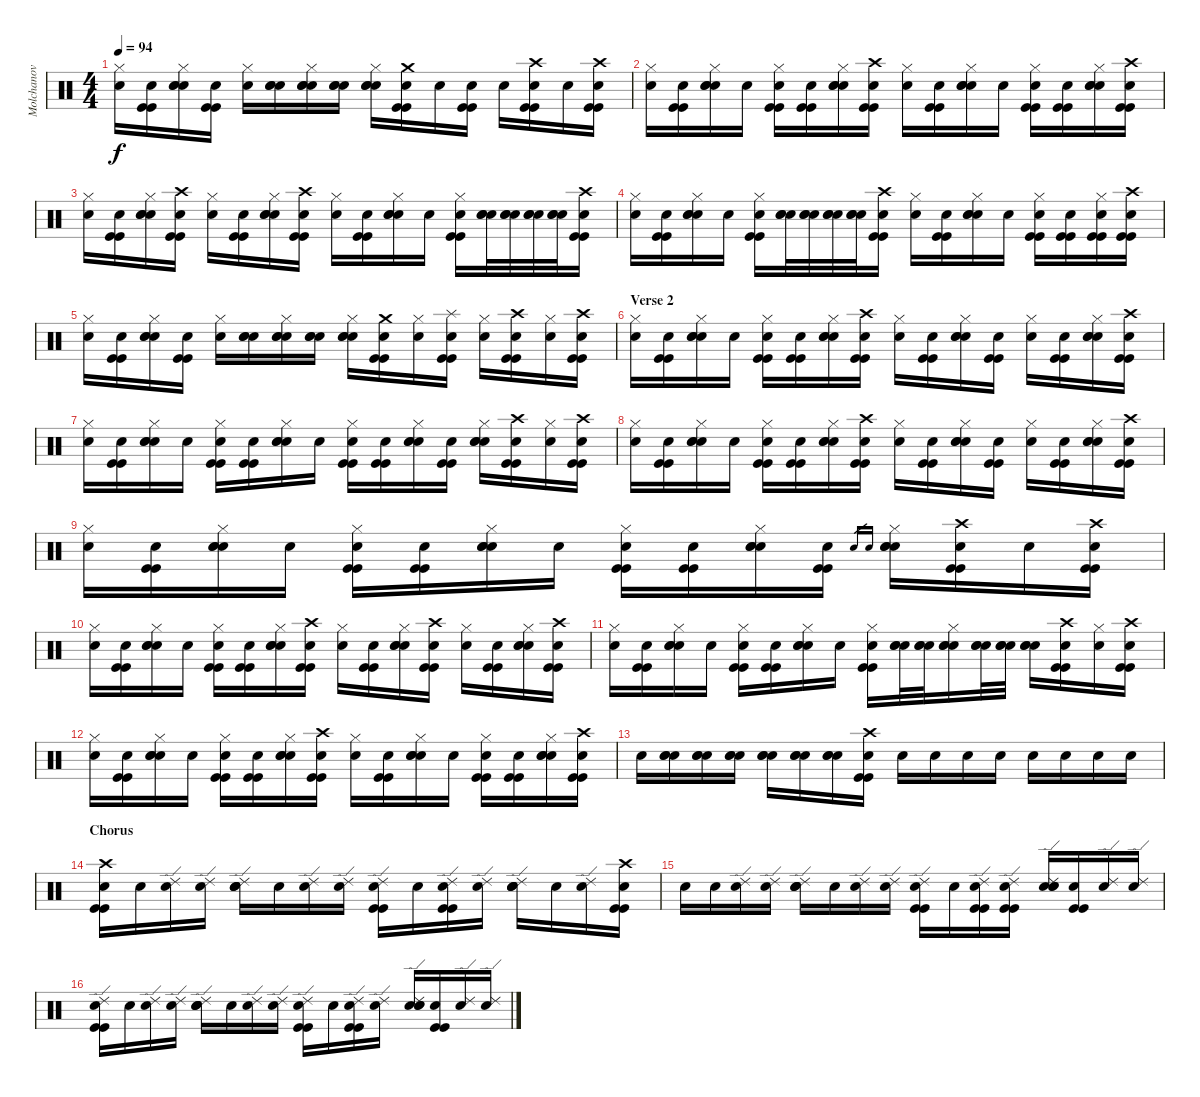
\track ("Molchanov" "Molchanov") {instrument percussion}
\staff {score}
\articulation defaults
\ts (4 4)
\tempo 94
\clef neutral
\ks c
("Hi-Hat (closed)" "Snare (hit)"{x}).16{dy f} ("Kick (hit)" "Kick (hit)" "Snare (hit)"{x}).16 ("Hi-Hat (closed)" "Electric Snare (hit)" "Electric Snare (hit)" "Snare (hit)"{x}).16 ("Kick (hit)" "Kick (hit)" "Snare (hit)"{x}).16 ("Hi-Hat (closed)" "Snare (hit)"{x}).16 ("Electric Snare (hit)" "Electric Snare (hit)" "Snare (hit)"{x}).16 ("Hi-Hat (closed)" "Electric Snare (hit)" "Electric Snare (hit)" "Snare (hit)"{x}).16 ("Electric Snare (hit)" "Electric Snare (hit)" "Snare (hit)"{x}).16 ("Hi-Hat (closed)" "Electric Snare (hit)" "Electric Snare (hit)" "Snare (hit)"{x}).16 ("Crash medium (hit)" "Kick (hit)" "Kick (hit)" "Snare (hit)"{x}).16 "Snare (hit)"{x}.16 ("Kick (hit)" "Kick (hit)" "Snare (hit)"{x}).16 "Snare (hit)"{x}.16 ("Crash high (hit)" "Kick (hit)" "Kick (hit)" "Snare (hit)"{x}).16 "Snare (hit)"{x}.16 ("Crash high (hit)" "Kick (hit)" "Kick (hit)" "Snare (hit)"{x}).16 |
("Hi-Hat (closed)" "Snare (hit)"{x}).16 ("Kick (hit)" "Kick (hit)" "Snare (hit)"{x}).16 ("Hi-Hat (closed)" "Electric Snare (hit)" "Electric Snare (hit)" "Snare (hit)"{x}).16 "Snare (hit)"{x}.16 ("Hi-Hat (closed)" "Kick (hit)" "Kick (hit)" "Snare (hit)"{x}).16 ("Kick (hit)" "Kick (hit)" "Snare (hit)"{x}).16 ("Hi-Hat (closed)" "Electric Snare (hit)" "Electric Snare (hit)" "Snare (hit)"{x}).16 ("Crash high (hit)" "Kick (hit)" "Kick (hit)" "Snare (hit)"{x}).16 ("Hi-Hat (closed)" "Snare (hit)"{x}).16 ("Kick (hit)" "Kick (hit)" "Snare (hit)"{x}).16 ("Hi-Hat (closed)" "Electric Snare (hit)" "Electric Snare (hit)" "Snare (hit)"{x}).16 "Snare (hit)"{x}.16 ("Hi-Hat (closed)" "Kick (hit)" "Kick (hit)" "Snare (hit)"{x}).16 ("Kick (hit)" "Kick (hit)" "Snare (hit)"{x}).16 ("Hi-Hat (closed)" "Electric Snare (hit)" "Electric Snare (hit)" "Snare (hit)"{x}).16 ("Crash high (hit)" "Kick (hit)" "Kick (hit)" "Snare (hit)"{x}).16 |
("Hi-Hat (closed)" "Snare (hit)"{x}).16 ("Kick (hit)" "Kick (hit)" "Snare (hit)"{x}).16 ("Hi-Hat (closed)" "Electric Snare (hit)" "Electric Snare (hit)" "Snare (hit)"{x}).16 ("Crash high (hit)" "Kick (hit)" "Kick (hit)" "Snare (hit)"{x}).16 ("Hi-Hat (closed)" "Snare (hit)"{x}).16 ("Kick (hit)" "Kick (hit)" "Snare (hit)"{x}).16 ("Hi-Hat (closed)" "Electric Snare (hit)" "Electric Snare (hit)" "Snare (hit)"{x}).16 ("Crash high (hit)" "Kick (hit)" "Kick (hit)" "Snare (hit)"{x}).16 ("Hi-Hat (closed)" "Snare (hit)"{x}).16 ("Kick (hit)" "Kick (hit)" "Snare (hit)"{x}).16 ("Hi-Hat (closed)" "Electric Snare (hit)" "Electric Snare (hit)" "Snare (hit)"{x}).16 "Snare (hit)"{x}.16 ("Hi-Hat (closed)" "Kick (hit)" "Kick (hit)" "Snare (hit)"{x}).16 ("Electric Snare (hit)" "Electric Snare (hit)" "Snare (hit)"{x}).32 ("Electric Snare (hit)" "Electric Snare (hit)" "Snare (hit)"{x}).32 ("Electric Snare (hit)" "Electric Snare (hit)" "Snare (hit)"{x}).32 ("Electric Snare (hit)" "Electric Snare (hit)" "Snare (hit)"{x}).32 ("Crash high (hit)" "Kick (hit)" "Kick (hit)" "Snare (hit)"{x}).16 |
("Hi-Hat (closed)" "Snare (hit)"{x}).16 ("Kick (hit)" "Kick (hit)" "Snare (hit)"{x}).16 ("Hi-Hat (closed)" "Electric Snare (hit)" "Electric Snare (hit)" "Snare (hit)"{x}).16 "Snare (hit)"{x}.16 ("Hi-Hat (closed)" "Kick (hit)" "Kick (hit)" "Snare (hit)"{x}).16 ("Electric Snare (hit)" "Electric Snare (hit)" "Snare (hit)"{x}).32 ("Electric Snare (hit)" "Electric Snare (hit)" "Snare (hit)"{x}).32 ("Electric Snare (hit)" "Electric Snare (hit)" "Snare (hit)"{x}).32 ("Electric Snare (hit)" "Electric Snare (hit)" "Snare (hit)"{x}).32 ("Crash high (hit)" "Kick (hit)" "Kick (hit)" "Snare (hit)"{x}).16 ("Hi-Hat (closed)" "Snare (hit)"{x}).16 ("Kick (hit)" "Kick (hit)" "Snare (hit)"{x}).16 ("Hi-Hat (closed)" "Electric Snare (hit)" "Electric Snare (hit)" "Snare (hit)"{x}).16 "Snare (hit)"{x}.16 ("Hi-Hat (closed)" "Kick (hit)" "Kick (hit)" "Snare (hit)"{x}).16 ("Kick (hit)" "Kick (hit)" "Snare (hit)"{x}).16 ("Hi-Hat (closed)" "Kick (hit)" "Kick (hit)" "Snare (hit)"{x}).16 ("Crash high (hit)" "Kick (hit)" "Kick (hit)" "Snare (hit)"{x}).16 |
("Hi-Hat (closed)" "Snare (hit)"{x}).16 ("Kick (hit)" "Kick (hit)" "Snare (hit)"{x}).16 ("Hi-Hat (closed)" "Electric Snare (hit)" "Electric Snare (hit)" "Snare (hit)"{x}).16 ("Kick (hit)" "Kick (hit)" "Snare (hit)"{x}).16 ("Hi-Hat (closed)" "Snare (hit)"{x}).16 ("Electric Snare (hit)" "Electric Snare (hit)" "Snare (hit)"{x}).16 ("Hi-Hat (closed)" "Electric Snare (hit)" "Electric Snare (hit)" "Snare (hit)"{x}).16 ("Electric Snare (hit)" "Electric Snare (hit)" "Snare (hit)"{x}).16 ("Hi-Hat (closed)" "Electric Snare (hit)" "Electric Snare (hit)" "Snare (hit)"{x}).16 ("Crash medium (hit)" "Kick (hit)" "Kick (hit)" "Snare (hit)"{x}).16 ("Hi-Hat (closed)" "Snare (hit)"{x}).16 ("Splash (hit)" "Kick (hit)" "Kick (hit)" "Snare (hit)"{x}).16 ("Hi-Hat (closed)" "Snare (hit)"{x}).16 ("Crash high (hit)" "Kick (hit)" "Kick (hit)" "Snare (hit)"{x}).16 ("Hi-Hat (closed)" "Snare (hit)"{x}).16 ("Crash high (hit)" "Kick (hit)" "Kick (hit)" "Snare (hit)"{x}).16 |
\section ("" "Verse 2")
("Hi-Hat (closed)" "Snare (hit)"{x}).16 ("Kick (hit)" "Kick (hit)" "Snare (hit)"{x}).16 ("Hi-Hat (closed)" "Electric Snare (hit)" "Electric Snare (hit)" "Snare (hit)"{x}).16 "Snare (hit)"{x}.16 ("Hi-Hat (closed)" "Kick (hit)" "Kick (hit)" "Snare (hit)"{x}).16 ("Kick (hit)" "Kick (hit)" "Snare (hit)"{x}).16 ("Hi-Hat (closed)" "Electric Snare (hit)" "Electric Snare (hit)" "Snare (hit)"{x}).16 ("Crash high (hit)" "Kick (hit)" "Kick (hit)" "Snare (hit)"{x}).16 ("Hi-Hat (closed)" "Snare (hit)"{x}).16 ("Kick (hit)" "Kick (hit)" "Snare (hit)"{x}).16 ("Hi-Hat (closed)" "Electric Snare (hit)" "Electric Snare (hit)" "Snare (hit)"{x}).16 ("Kick (hit)" "Kick (hit)" "Snare (hit)"{x}).16 ("Hi-Hat (closed)" "Snare (hit)"{x}).16 ("Kick (hit)" "Kick (hit)" "Snare (hit)"{x}).16 ("Hi-Hat (closed)" "Electric Snare (hit)" "Electric Snare (hit)" "Snare (hit)"{x}).16 ("Crash high (hit)" "Kick (hit)" "Kick (hit)" "Snare (hit)"{x}).16 |
("Hi-Hat (closed)" "Snare (hit)"{x}).16 ("Kick (hit)" "Kick (hit)" "Snare (hit)"{x}).16 ("Hi-Hat (closed)" "Electric Snare (hit)" "Electric Snare (hit)" "Snare (hit)"{x}).16 "Snare (hit)"{x}.16 ("Hi-Hat (closed)" "Kick (hit)" "Kick (hit)" "Snare (hit)"{x}).16 ("Kick (hit)" "Kick (hit)" "Snare (hit)"{x}).16 ("Hi-Hat (closed)" "Electric Snare (hit)" "Electric Snare (hit)" "Snare (hit)"{x}).16 "Snare (hit)"{x}.16 ("Hi-Hat (closed)" "Kick (hit)" "Kick (hit)" "Snare (hit)"{x}).16 ("Kick (hit)" "Kick (hit)" "Snare (hit)"{x}).16 ("Hi-Hat (closed)" "Electric Snare (hit)" "Electric Snare (hit)" "Snare (hit)"{x}).16 ("Kick (hit)" "Kick (hit)" "Snare (hit)"{x}).16 ("Hi-Hat (closed)" "Electric Snare (hit)" "Electric Snare (hit)" "Snare (hit)"{x}).16 ("Crash high (hit)" "Kick (hit)" "Kick (hit)" "Snare (hit)"{x}).16 ("Hi-Hat (closed)" "Snare (hit)"{x}).16 ("Crash high (hit)" "Kick (hit)" "Kick (hit)" "Snare (hit)"{x}).16 |
("Hi-Hat (closed)" "Snare (hit)"{x}).16 ("Kick (hit)" "Kick (hit)" "Snare (hit)"{x}).16 ("Hi-Hat (closed)" "Electric Snare (hit)" "Electric Snare (hit)" "Snare (hit)"{x}).16 "Snare (hit)"{x}.16 ("Hi-Hat (closed)" "Kick (hit)" "Kick (hit)" "Snare (hit)"{x}).16 ("Kick (hit)" "Kick (hit)" "Snare (hit)"{x}).16 ("Hi-Hat (closed)" "Electric Snare (hit)" "Electric Snare (hit)" "Snare (hit)"{x}).16 ("Crash high (hit)" "Kick (hit)" "Kick (hit)" "Snare (hit)"{x}).16 ("Hi-Hat (closed)" "Snare (hit)"{x}).16 ("Kick (hit)" "Kick (hit)" "Snare (hit)"{x}).16 ("Hi-Hat (closed)" "Electric Snare (hit)" "Electric Snare (hit)" "Snare (hit)"{x}).16 ("Kick (hit)" "Kick (hit)" "Snare (hit)"{x}).16 ("Hi-Hat (closed)" "Snare (hit)"{x}).16 ("Kick (hit)" "Kick (hit)" "Snare (hit)"{x}).16 ("Hi-Hat (closed)" "Electric Snare (hit)" "Electric Snare (hit)" "Snare (hit)"{x}).16 ("Crash high (hit)" "Kick (hit)" "Kick (hit)" "Snare (hit)"{x}).16 |
("Hi-Hat (closed)" "Snare (hit)"{x}).16 ("Kick (hit)" "Kick (hit)" "Snare (hit)"{x}).16 ("Hi-Hat (closed)" "Electric Snare (hit)" "Electric Snare (hit)" "Snare (hit)"{x}).16 "Snare (hit)"{x}.16 ("Hi-Hat (closed)" "Kick (hit)" "Kick (hit)" "Snare (hit)"{x}).16 ("Kick (hit)" "Kick (hit)" "Snare (hit)"{x}).16 ("Hi-Hat (closed)" "Electric Snare (hit)" "Electric Snare (hit)" "Snare (hit)"{x}).16 "Snare (hit)"{x}.16 ("Hi-Hat (closed)" "Kick (hit)" "Kick (hit)" "Snare (hit)"{x}).16 ("Kick (hit)" "Kick (hit)" "Snare (hit)"{x}).16 ("Hi-Hat (closed)" "Electric Snare (hit)" "Electric Snare (hit)" "Snare (hit)"{x}).16 ("Kick (hit)" "Kick (hit)" "Snare (hit)"{x}).16 "Electric Snare (hit)".16{gr} "Electric Snare (hit)".16{gr} ("Hi-Hat (closed)" "Electric Snare (hit)" "Electric Snare (hit)" "Snare (hit)"{x}).16 ("Crash high (hit)" "Kick (hit)" "Kick (hit)" "Snare (hit)"{x}).16 "Snare (hit)"{x}.16 ("Crash high (hit)" "Kick (hit)" "Kick (hit)" "Snare (hit)"{x}).16 |
("Hi-Hat (closed)" "Snare (hit)"{x}).16 ("Kick (hit)" "Kick (hit)" "Snare (hit)"{x}).16 ("Hi-Hat (closed)" "Electric Snare (hit)" "Electric Snare (hit)" "Snare (hit)"{x}).16 "Snare (hit)"{x}.16 ("Hi-Hat (closed)" "Kick (hit)" "Kick (hit)" "Snare (hit)"{x}).16 ("Kick (hit)" "Kick (hit)" "Snare (hit)"{x}).16 ("Hi-Hat (closed)" "Electric Snare (hit)" "Electric Snare (hit)" "Snare (hit)"{x}).16 ("Crash high (hit)" "Kick (hit)" "Kick (hit)" "Snare (hit)"{x}).16 ("Hi-Hat (closed)" "Snare (hit)"{x}).16 ("Kick (hit)" "Kick (hit)" "Snare (hit)"{x}).16 ("Hi-Hat (closed)" "Electric Snare (hit)" "Electric Snare (hit)" "Snare (hit)"{x}).16 ("Crash high (hit)" "Kick (hit)" "Kick (hit)" "Snare (hit)"{x}).16 ("Hi-Hat (closed)" "Snare (hit)"{x}).16 ("Kick (hit)" "Kick (hit)" "Snare (hit)"{x}).16 ("Hi-Hat (closed)" "Electric Snare (hit)" "Electric Snare (hit)" "Snare (hit)"{x}).16 ("Crash high (hit)" "Kick (hit)" "Kick (hit)" "Snare (hit)"{x}).16 |
("Hi-Hat (closed)" "Snare (hit)"{x}).16 ("Kick (hit)" "Kick (hit)" "Snare (hit)"{x}).16 ("Hi-Hat (closed)" "Electric Snare (hit)" "Electric Snare (hit)" "Snare (hit)"{x}).16 "Snare (hit)"{x}.16 ("Hi-Hat (closed)" "Kick (hit)" "Kick (hit)" "Snare (hit)"{x}).16 ("Kick (hit)" "Kick (hit)" "Snare (hit)"{x}).16 ("Hi-Hat (closed)" "Electric Snare (hit)" "Electric Snare (hit)" "Snare (hit)"{x}).16 "Snare (hit)"{x}.16 ("Hi-Hat (closed)" "Kick (hit)" "Kick (hit)" "Snare (hit)"{x}).16 ("Electric Snare (hit)" "Electric Snare (hit)" "Snare (hit)"{x}).32 ("Electric Snare (hit)" "Electric Snare (hit)" "Snare (hit)"{x}).32 ("Hi-Hat (closed)" "Electric Snare (hit)" "Electric Snare (hit)" "Snare (hit)"{x}).16 ("Electric Snare (hit)" "Electric Snare (hit)" "Snare (hit)"{x}).32 ("Electric Snare (hit)" "Electric Snare (hit)" "Snare (hit)"{x}).32 ("Electric Snare (hit)" "Electric Snare (hit)" "Snare (hit)"{x}).16 ("Crash high (hit)" "Kick (hit)" "Kick (hit)" "Snare (hit)"{x}).16 ("Hi-Hat (closed)" "Snare (hit)"{x}).16 ("Crash high (hit)" "Kick (hit)" "Kick (hit)" "Snare (hit)"{x}).16 |
("Hi-Hat (closed)" "Snare (hit)"{x}).16 ("Kick (hit)" "Kick (hit)" "Snare (hit)"{x}).16 ("Hi-Hat (closed)" "Electric Snare (hit)" "Electric Snare (hit)" "Snare (hit)"{x}).16 "Snare (hit)"{x}.16 ("Hi-Hat (closed)" "Kick (hit)" "Kick (hit)" "Snare (hit)"{x}).16 ("Kick (hit)" "Kick (hit)" "Snare (hit)"{x}).16 ("Hi-Hat (closed)" "Electric Snare (hit)" "Electric Snare (hit)" "Snare (hit)"{x}).16 ("Crash high (hit)" "Kick (hit)" "Kick (hit)" "Snare (hit)"{x}).16 ("Hi-Hat (closed)" "Snare (hit)"{x}).16 ("Kick (hit)" "Kick (hit)" "Snare (hit)"{x}).16 ("Hi-Hat (closed)" "Electric Snare (hit)" "Electric Snare (hit)" "Snare (hit)"{x}).16 "Snare (hit)"{x}.16 ("Hi-Hat (closed)" "Kick (hit)" "Kick (hit)" "Snare (hit)"{x}).16 ("Kick (hit)" "Kick (hit)" "Snare (hit)"{x}).16 ("Hi-Hat (closed)" "Electric Snare (hit)" "Electric Snare (hit)" "Snare (hit)"{x}).16 ("Crash high (hit)" "Kick (hit)" "Kick (hit)" "Snare (hit)"{x}).16 |
"Snare (hit)"{x}.16 ("Electric Snare (hit)" "Electric Snare (hit)" "Snare (hit)"{x}).16 ("Electric Snare (hit)" "Electric Snare (hit)" "Snare (hit)"{x}).16 ("Electric Snare (hit)" "Electric Snare (hit)" "Snare (hit)"{x}).16 ("Electric Snare (hit)" "Electric Snare (hit)" "Snare (hit)"{x}).16 ("Electric Snare (hit)" "Electric Snare (hit)" "Snare (hit)"{x}).16 ("Electric Snare (hit)" "Electric Snare (hit)" "Snare (hit)"{x}).16 ("Crash high (hit)" "Kick (hit)" "Kick (hit)" "Snare (hit)"{x}).16 "Snare (hit)"{x}.16 "Snare (hit)"{x}.16 "Snare (hit)"{x}.16 "Snare (hit)"{x}.16 "Snare (hit)"{x}.16 "Snare (hit)"{x}.16 "Snare (hit)"{x}.16 "Snare (hit)"{x}.16 |
\section ("" "Chorus")
("Crash high (hit)" "Kick (hit)" "Kick (hit)" "Snare (hit)"{x}).16 "Snare (hit)"{x}.16 ("Ride (edge) 2" "Snare (hit)"{x}).16 ("Ride (edge) 2" "Snare (hit)"{x}).16 ("Ride (edge) 2" "Electric Snare (hit)" "Electric Snare (hit)" "Snare (hit)"{x}).16 "Snare (hit)"{x}.16 ("Ride (edge) 2" "Snare (hit)"{x}).16 ("Ride (edge) 2" "Snare (hit)"{x}).16 ("Ride (edge) 2" "Kick (hit)" "Kick (hit)" "Snare (hit)"{x}).16 "Snare (hit)"{x}.16 ("Ride (edge) 2" "Kick (hit)" "Kick (hit)" "Snare (hit)"{x}).16 ("Ride (edge) 2" "Snare (hit)"{x}).16 ("Ride (edge) 2" "Electric Snare (hit)" "Electric Snare (hit)" "Snare (hit)"{x}).16 "Snare (hit)"{x}.16 ("Ride (edge) 2" "Snare (hit)"{x}).16 ("Crash high (hit)" "Kick (hit)" "Kick (hit)" "Snare (hit)"{x}).16 |
"Snare (hit)"{x}.16 "Snare (hit)"{x}.16 ("Ride (edge) 2" "Snare (hit)"{x}).16 ("Ride (edge) 2" "Snare (hit)"{x}).16 ("Ride (edge) 2" "Electric Snare (hit)" "Electric Snare (hit)" "Snare (hit)"{x}).16 "Snare (hit)"{x}.16 ("Ride (edge) 2" "Snare (hit)"{x}).16 ("Ride (edge) 2" "Snare (hit)"{x}).16 ("Ride (edge) 2" "Kick (hit)" "Kick (hit)" "Snare (hit)"{x}).16 "Snare (hit)"{x}.16 ("Ride (edge) 2" "Kick (hit)" "Kick (hit)" "Snare (hit)"{x}).16 ("Ride (edge) 2" "Kick (hit)" "Kick (hit)" "Snare (hit)"{x}).16 ("Ride (edge) 2" "Electric Snare (hit)" "Electric Snare (hit)" "Snare (hit)"{x}).16 ("Kick (hit)" "Kick (hit)" "Snare (hit)"{x}).16 ("Ride (edge) 2" "Snare (hit)"{x}).16 ("Ride (edge) 2" "Snare (hit)"{x}).16 |
("Ride (edge) 2" "Kick (hit)" "Kick (hit)" "Snare (hit)"{x}).16 "Snare (hit)"{x}.16 ("Ride (edge) 2" "Snare (hit)"{x}).16 ("Ride (edge) 2" "Snare (hit)"{x}).16 ("Ride (edge) 2" "Electric Snare (hit)" "Electric Snare (hit)" "Snare (hit)"{x}).16 "Snare (hit)"{x}.16 ("Ride (edge) 2" "Snare (hit)"{x}).16 ("Ride (edge) 2" "Snare (hit)"{x}).16 ("Ride (edge) 2" "Kick (hit)" "Kick (hit)" "Snare (hit)"{x}).16 "Snare (hit)"{x}.16 ("Ride (edge) 2" "Kick (hit)" "Kick (hit)" "Snare (hit)"{x}).16 ("Ride (edge) 2" "Snare (hit)"{x}).16 ("Ride (edge) 2" "Electric Snare (hit)" "Electric Snare (hit)" "Snare (hit)"{x}).16 ("Kick (hit)" "Kick (hit)" "Snare (hit)"{x}).16 ("Ride (edge) 2" "Snare (hit)"{x}).16 ("Ride (edge) 2" "Snare (hit)"{x}).16
